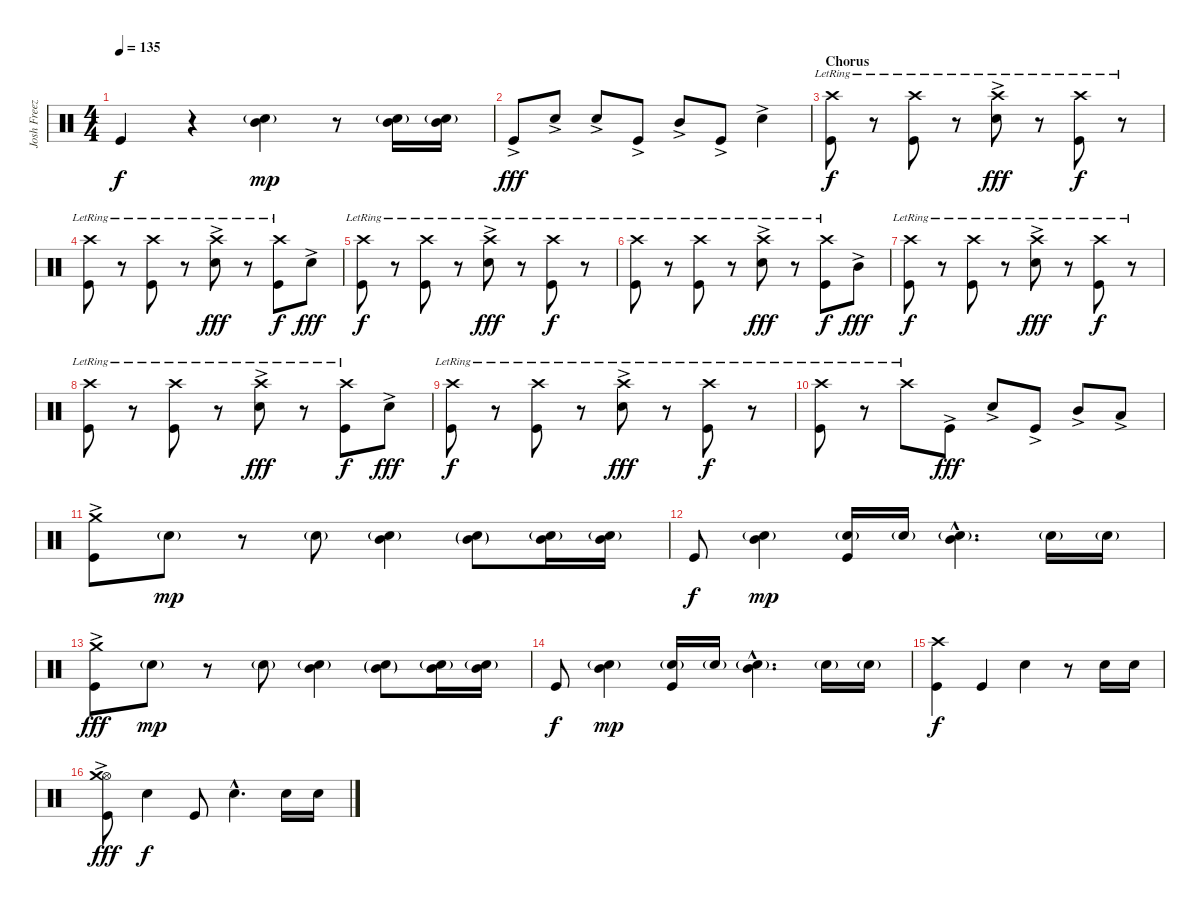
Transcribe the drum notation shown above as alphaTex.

\track ("Josh Freeze" "Josh Freez") {instrument percussion}
\staff {score}
\articulation defaults
\ts (4 4)
\tempo 135
\clef neutral
\ks c "Kick (hit)".4{dy f}
r.4 ("Mid Tom (hit)" "Electric Snare (hit)"{g}).4{dy mp} r.8 ("Mid Tom (hit)" "Electric Snare (hit)"{g}).16 ("Mid Tom (hit)" "Electric Snare (hit)"{g}).16 |
"Kick (hit)"{ac}.8{dy fff volume 16} "Electric Snare (hit)"{ac}.8 "Electric Snare (hit)"{ac}.8 "Kick (hit)"{ac}.8 "Mid Tom (hit)"{ac}.8 "Kick (hit)"{ac}.8 "Electric Snare (hit)"{ac}.4 |
\section ("" "Chorus")
("Crash high (hit)"{lr} "Kick (hit)").8{dy f} r.8 ("Crash high (hit)"{lr} "Kick (hit)").8 r.8 ("Crash high (hit)"{lr} "Electric Snare (hit)"{ac}).8{dy fff} r.8 ("Crash high (hit)"{lr} "Kick (hit)").8{dy f} r.8 |
("Crash high (hit)"{lr} "Kick (hit)").8 r.8 ("Crash high (hit)"{lr} "Kick (hit)").8 r.8 ("Crash high (hit)"{lr} "Electric Snare (hit)"{ac}).8{dy fff} r.8 ("Crash high (hit)"{lr} "Kick (hit)").8{dy f} "Electric Snare (hit)"{ac}.8{dy fff} |
("Crash high (hit)"{lr} "Kick (hit)").8{dy f} r.8 ("Crash high (hit)"{lr} "Kick (hit)").8 r.8 ("Crash high (hit)"{lr} "Electric Snare (hit)"{ac}).8{dy fff} r.8 ("Crash high (hit)"{lr} "Kick (hit)").8{dy f} r.8 |
("Crash high (hit)"{lr} "Kick (hit)").8 r.8 ("Crash high (hit)"{lr} "Kick (hit)").8 r.8 ("Crash high (hit)"{lr} "Electric Snare (hit)"{ac}).8{dy fff} r.8 ("Crash high (hit)"{lr} "Kick (hit)").8{dy f} "Mid Tom (hit)"{ac}.8{dy fff} |
("Crash high (hit)"{lr} "Kick (hit)").8{dy f} r.8 ("Crash high (hit)"{lr} "Kick (hit)").8 r.8 ("Crash high (hit)"{lr} "Electric Snare (hit)"{ac}).8{dy fff} r.8 ("Crash high (hit)"{lr} "Kick (hit)").8{dy f} r.8 |
("Crash high (hit)"{lr} "Kick (hit)").8 r.8 ("Crash high (hit)"{lr} "Kick (hit)").8 r.8 ("Crash high (hit)"{lr} "Electric Snare (hit)"{ac}).8{dy fff} r.8 ("Crash high (hit)"{lr} "Kick (hit)").8{dy f} "Electric Snare (hit)"{ac}.8{dy fff} |
("Crash high (hit)"{lr} "Kick (hit)").8{dy f} r.8 ("Crash high (hit)"{lr} "Kick (hit)").8 r.8 ("Crash high (hit)"{lr} "Electric Snare (hit)"{ac}).8{dy fff} r.8 ("Crash high (hit)"{lr} "Kick (hit)").8{dy f} r.8 |
("Crash high (hit)"{lr} "Kick (hit)").8 r.8 "Crash high (hit)"{lr}.8 "Kick (hit)"{ac}.8{dy fff} "Electric Snare (hit)"{ac}.8 "Kick (hit)"{ac}.8 "Mid Tom (hit)"{ac}.8 "Low Tom (hit)"{ac}.8 |
("Crash medium (hit)"{ac} "Kick (hit)").8 "Electric Snare (hit)"{g}.8{dy mp} r.8 "Electric Snare (hit)"{g}.8 ("Mid Tom (hit)" "Electric Snare (hit)"{g}).4 ("Mid Tom (hit)"{g} "Electric Snare (hit)"{g}).8 ("Mid Tom (hit)" "Electric Snare (hit)"{g}).16 ("Mid Tom (hit)" "Electric Snare (hit)"{g}).16 |
"Kick (hit)".8{dy f} ("Mid Tom (hit)" "Electric Snare (hit)"{g}).4{dy mp} ("Electric Snare (hit)"{g} "Kick (hit)").16 "Electric Snare (hit)"{g}.16 ("Mid Tom (hit)"{hac} "Electric Snare (hit)"{g hac}).4{d} "Electric Snare (hit)"{g}.16 "Electric Snare (hit)"{g}.16 |
("Crash medium (hit)"{ac} "Kick (hit)").8{dy fff} "Electric Snare (hit)"{g}.8{dy mp} r.8 "Electric Snare (hit)"{g}.8 ("Mid Tom (hit)" "Electric Snare (hit)"{g}).4 ("Mid Tom (hit)"{g} "Electric Snare (hit)"{g}).8 ("Mid Tom (hit)" "Electric Snare (hit)"{g}).16 ("Mid Tom (hit)" "Electric Snare (hit)"{g}).16 |
"Kick (hit)".8{dy f} ("Mid Tom (hit)" "Electric Snare (hit)"{g}).4{dy mp} ("Electric Snare (hit)"{g} "Kick (hit)").16 "Electric Snare (hit)"{g}.16 ("Mid Tom (hit)"{hac} "Electric Snare (hit)"{g hac}).4{d} "Electric Snare (hit)"{g}.16 "Electric Snare (hit)"{g}.16 |
("Crash high (hit)" "Kick (hit)").4{dy f} "Kick (hit)".4 "Electric Snare (hit)".4 r.8 "Electric Snare (hit)".16 "Electric Snare (hit)".16 |
("Hi-Hat (open)"{ac} "Crash medium (hit)"{ac} "Kick (hit)").8{dy fff} "Electric Snare (hit)".4{dy f} "Kick (hit)".8 "Electric Snare (hit)"{hac}.4{d} "Electric Snare (hit)".16 "Electric Snare (hit)".16
